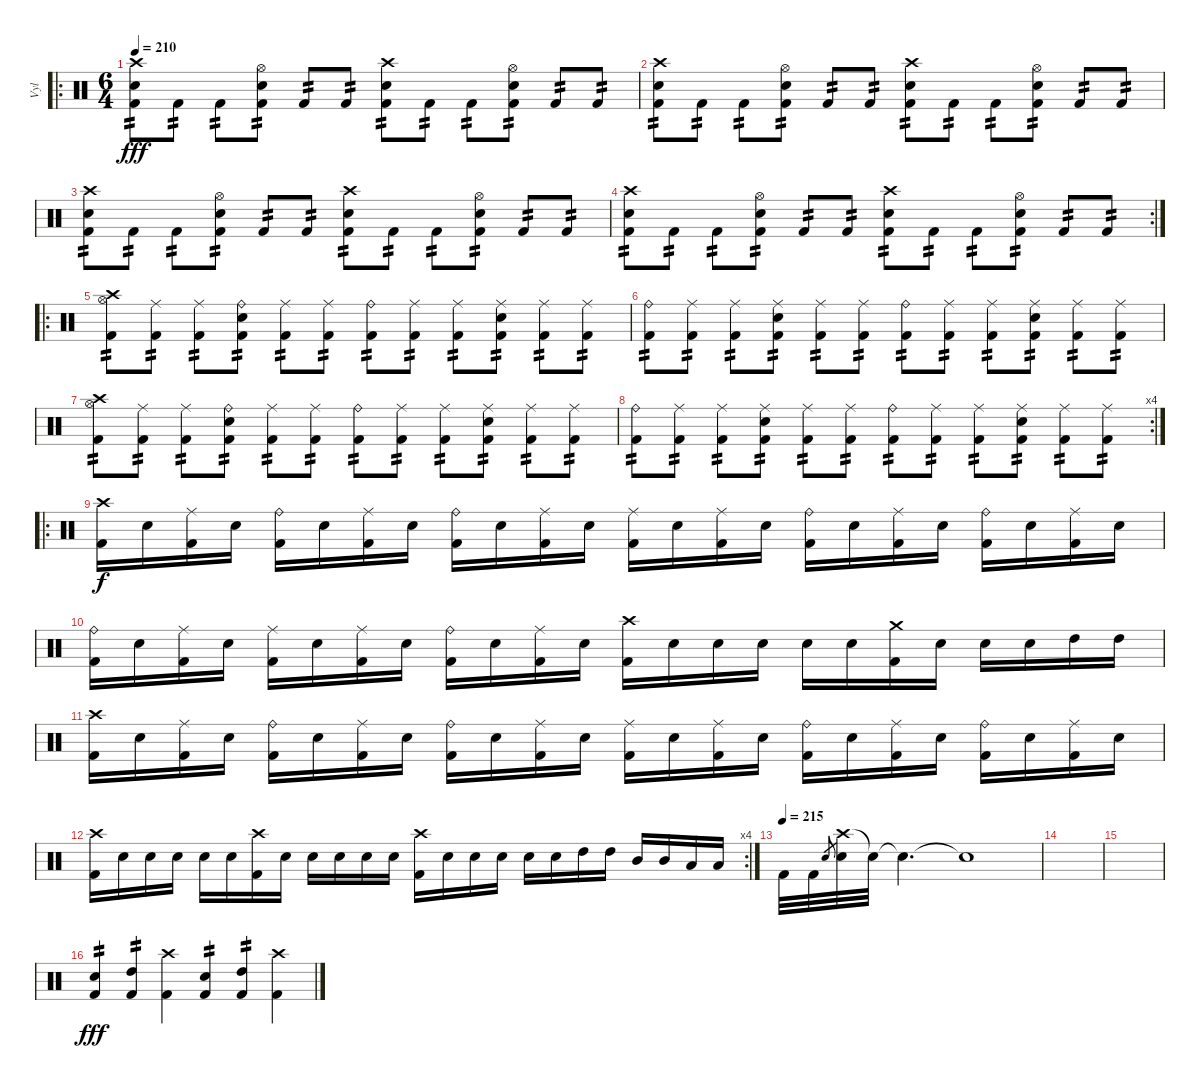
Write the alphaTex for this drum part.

\track ("Vyl" "Vyl") {instrument percussion}
\staff {score}
\articulation defaults
\ro
\ts (6 4)
\tempo 210
\clef neutral
\ks c
("Crash high (hit)" "Snare (hit) 2" "Kick (hit) 2").8{tp 2 dy fff} "Kick (hit) 2".8{tp 2} "Kick (hit) 2".8{tp 2} ("Hi-Hat (open)" "Snare (hit) 2" "Kick (hit) 2").8{tp 2} "Kick (hit) 2".8{tp 2} "Kick (hit) 2".8{tp 2} ("Crash high (hit)" "Snare (hit) 2" "Kick (hit) 2").8{tp 2} "Kick (hit) 2".8{tp 2} "Kick (hit) 2".8{tp 2} ("Hi-Hat (open)" "Snare (hit) 2" "Kick (hit) 2").8{tp 2} "Kick (hit) 2".8{tp 2} "Kick (hit) 2".8{tp 2} |
("Crash high (hit)" "Snare (hit) 2" "Kick (hit) 2").8{tp 2} "Kick (hit) 2".8{tp 2} "Kick (hit) 2".8{tp 2} ("Hi-Hat (open)" "Snare (hit) 2" "Kick (hit) 2").8{tp 2} "Kick (hit) 2".8{tp 2} "Kick (hit) 2".8{tp 2} ("Crash high (hit)" "Snare (hit) 2" "Kick (hit) 2").8{tp 2} "Kick (hit) 2".8{tp 2} "Kick (hit) 2".8{tp 2} ("Hi-Hat (open)" "Snare (hit) 2" "Kick (hit) 2").8{tp 2} "Kick (hit) 2".8{tp 2} "Kick (hit) 2".8{tp 2} |
("Crash high (hit)" "Snare (hit) 2" "Kick (hit) 2").8{tp 2} "Kick (hit) 2".8{tp 2} "Kick (hit) 2".8{tp 2} ("Hi-Hat (open)" "Snare (hit) 2" "Kick (hit) 2").8{tp 2} "Kick (hit) 2".8{tp 2} "Kick (hit) 2".8{tp 2} ("Crash high (hit)" "Snare (hit) 2" "Kick (hit) 2").8{tp 2} "Kick (hit) 2".8{tp 2} "Kick (hit) 2".8{tp 2} ("Hi-Hat (open)" "Snare (hit) 2" "Kick (hit) 2").8{tp 2} "Kick (hit) 2".8{tp 2} "Kick (hit) 2".8{tp 2} |
\rc 2
("Crash high (hit)" "Snare (hit) 2" "Kick (hit) 2").8{tp 2} "Kick (hit) 2".8{tp 2} "Kick (hit) 2".8{tp 2} ("Hi-Hat (open)" "Snare (hit) 2" "Kick (hit) 2").8{tp 2} "Kick (hit) 2".8{tp 2} "Kick (hit) 2".8{tp 2} ("Crash high (hit)" "Snare (hit) 2" "Kick (hit) 2").8{tp 2} "Kick (hit) 2".8{tp 2} "Kick (hit) 2".8{tp 2} ("Hi-Hat (open)" "Snare (hit) 2" "Kick (hit) 2").8{tp 2} "Kick (hit) 2".8{tp 2} "Kick (hit) 2".8{tp 2} |
\ro
("Crash high (hit)" "Hi-Hat (open)" "Kick (hit) 2").8{tp 2} ("Ride (middle)" "Kick (hit) 2").8{tp 2} ("Ride (middle)" "Kick (hit) 2").8{tp 2} ("Ride (bell)" "Snare (hit) 2" "Kick (hit) 2").8{tp 2} ("Ride (middle)" "Kick (hit) 2").8{tp 2} ("Ride (middle)" "Kick (hit) 2").8{tp 2} ("Ride (bell)" "Kick (hit) 2").8{tp 2} ("Ride (middle)" "Kick (hit) 2").8{tp 2} ("Ride (middle)" "Kick (hit) 2").8{tp 2} ("Ride (middle)" "Snare (hit) 2" "Kick (hit) 2").8{tp 2} ("Ride (middle)" "Kick (hit) 2").8{tp 2} ("Ride (middle)" "Kick (hit) 2").8{tp 2} |
("Ride (bell)" "Kick (hit) 2").8{tp 2} ("Ride (middle)" "Kick (hit) 2").8{tp 2} ("Ride (middle)" "Kick (hit) 2").8{tp 2} ("Ride (middle)" "Snare (hit) 2" "Kick (hit) 2").8{tp 2} ("Ride (middle)" "Kick (hit) 2").8{tp 2} ("Ride (middle)" "Kick (hit) 2").8{tp 2} ("Ride (bell)" "Kick (hit) 2").8{tp 2} ("Ride (middle)" "Kick (hit) 2").8{tp 2} ("Ride (middle)" "Kick (hit) 2").8{tp 2} ("Ride (middle)" "Snare (hit) 2" "Kick (hit) 2").8{tp 2} ("Ride (middle)" "Kick (hit) 2").8{tp 2} ("Ride (middle)" "Kick (hit) 2").8{tp 2} |
("Crash high (hit)" "Hi-Hat (open)" "Kick (hit) 2").8{tp 2} ("Ride (middle)" "Kick (hit) 2").8{tp 2} ("Ride (middle)" "Kick (hit) 2").8{tp 2} ("Ride (bell)" "Snare (hit) 2" "Kick (hit) 2").8{tp 2} ("Ride (middle)" "Kick (hit) 2").8{tp 2} ("Ride (middle)" "Kick (hit) 2").8{tp 2} ("Ride (bell)" "Kick (hit) 2").8{tp 2} ("Ride (middle)" "Kick (hit) 2").8{tp 2} ("Ride (middle)" "Kick (hit) 2").8{tp 2} ("Ride (middle)" "Snare (hit) 2" "Kick (hit) 2").8{tp 2} ("Ride (middle)" "Kick (hit) 2").8{tp 2} ("Ride (middle)" "Kick (hit) 2").8{tp 2} |
\rc 4
("Ride (bell)" "Kick (hit) 2").8{tp 2} ("Ride (middle)" "Kick (hit) 2").8{tp 2} ("Ride (middle)" "Kick (hit) 2").8{tp 2} ("Ride (middle)" "Snare (hit) 2" "Kick (hit) 2").8{tp 2} ("Ride (middle)" "Kick (hit) 2").8{tp 2} ("Ride (middle)" "Kick (hit) 2").8{tp 2} ("Ride (bell)" "Kick (hit) 2").8{tp 2} ("Ride (middle)" "Kick (hit) 2").8{tp 2} ("Ride (middle)" "Kick (hit) 2").8{tp 2} ("Ride (middle)" "Snare (hit) 2" "Kick (hit) 2").8{tp 2} ("Ride (middle)" "Kick (hit) 2").8{tp 2} ("Ride (middle)" "Kick (hit) 2").8{tp 2} |
\ro
("Crash high (hit)" "Kick (hit) 2").16{dy f} "Snare (hit) 2".16 ("Ride (middle)" "Kick (hit) 2").16 "Snare (hit) 2".16 ("Ride (bell)" "Kick (hit) 2").16 "Snare (hit) 2".16 ("Ride (middle)" "Kick (hit) 2").16 "Snare (hit) 2".16 ("Ride (bell)" "Kick (hit) 2").16 "Snare (hit) 2".16 ("Ride (middle)" "Kick (hit) 2").16 "Snare (hit) 2".16 ("Ride (middle)" "Kick (hit) 2").16 "Snare (hit) 2".16 ("Ride (middle)" "Kick (hit) 2").16 "Snare (hit) 2".16 ("Ride (bell)" "Kick (hit) 2").16 "Snare (hit) 2".16 ("Ride (middle)" "Kick (hit) 2").16 "Snare (hit) 2".16 ("Ride (bell)" "Kick (hit) 2").16 "Snare (hit) 2".16 ("Ride (middle)" "Kick (hit) 2").16 "Snare (hit) 2".16 |
("Ride (bell)" "Kick (hit) 2").16 "Snare (hit) 2".16 ("Ride (middle)" "Kick (hit) 2").16 "Snare (hit) 2".16 ("Ride (middle)" "Kick (hit) 2").16 "Snare (hit) 2".16 ("Ride (middle)" "Kick (hit) 2").16 "Snare (hit) 2".16 ("Ride (bell)" "Kick (hit) 2").16 "Snare (hit) 2".16 ("Ride (middle)" "Kick (hit) 2").16 "Snare (hit) 2".16 ("Crash high (hit)" "Kick (hit) 2").16 "Snare (hit) 2".16 "Snare (hit) 2".16 "Snare (hit) 2".16 "Snare (hit) 2".16 "Snare (hit) 2".16 ("Crash medium (hit)" "Kick (hit) 2").16 "Snare (hit) 2".16 "Snare (hit) 2".16 "Snare (hit) 2".16 "High Tom (hit)".16 "High Tom (hit)".16 |
("Crash high (hit)" "Kick (hit) 2").16 "Snare (hit) 2".16 ("Ride (middle)" "Kick (hit) 2").16 "Snare (hit) 2".16 ("Ride (bell)" "Kick (hit) 2").16 "Snare (hit) 2".16 ("Ride (middle)" "Kick (hit) 2").16 "Snare (hit) 2".16 ("Ride (bell)" "Kick (hit) 2").16 "Snare (hit) 2".16 ("Ride (middle)" "Kick (hit) 2").16 "Snare (hit) 2".16 ("Ride (middle)" "Kick (hit) 2").16 "Snare (hit) 2".16 ("Ride (middle)" "Kick (hit) 2").16 "Snare (hit) 2".16 ("Ride (bell)" "Kick (hit) 2").16 "Snare (hit) 2".16 ("Ride (middle)" "Kick (hit) 2").16 "Snare (hit) 2".16 ("Ride (bell)" "Kick (hit) 2").16 "Snare (hit) 2".16 ("Ride (middle)" "Kick (hit) 2").16 "Snare (hit) 2".16 |
\rc 4
("Crash high (hit)" "Kick (hit) 2").16 "Snare (hit) 2".16 "Snare (hit) 2".16 "Snare (hit) 2".16 "Snare (hit) 2".16 "Snare (hit) 2".16 ("Crash high (hit)" "Kick (hit) 2").16 "Snare (hit) 2".16 "Snare (hit) 2".16 "Snare (hit) 2".16 "Snare (hit) 2".16 "Snare (hit) 2".16 ("Crash high (hit)" "Kick (hit) 2").16 "Snare (hit) 2".16 "Snare (hit) 2".16 "Snare (hit) 2".16 "Snare (hit) 2".16 "Snare (hit) 2".16 "High Tom (hit)".16 "High Tom (hit)".16 "Mid Tom (hit)".16 "Mid Tom (hit)".16 "Low Tom (hit)".16 "Low Tom (hit)".16 |
\tempo (215)
"Kick (hit) 2".32 "Kick (hit) 2".32 "Snare (hit) 2".8{gr} ("Crash high (hit)" "Snare (hit) 2").32 "Snare (hit)"{t}.32 "Snare (hit)"{t}.4{d} "Snare (hit)"{t}.1 |
|
|
("Snare (hit) 2" "Kick (hit) 2").4{tp 2 dy fff} ("High Tom (hit)" "Kick (hit) 2").4{tp 2} ("Crash high (hit)" "Kick (hit) 2").4 ("Snare (hit) 2" "Kick (hit) 2").4{tp 2} ("High Tom (hit)" "Kick (hit) 2").4{tp 2} ("Crash high (hit)" "Kick (hit) 2").4
